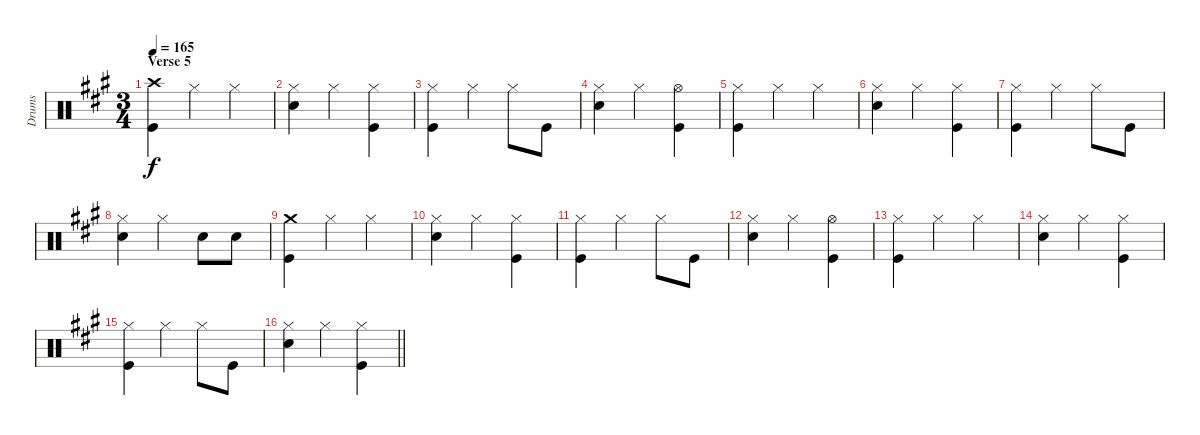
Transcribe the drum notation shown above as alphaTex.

\track ("Drums" "Drums") {instrument percussion}
\staff {score}
\articulation defaults
\ts (3 4)
\section ("" "Verse 5")
\tempo 165
\clef neutral
\ks a
("Crash high (hit)" "Kick (hit)").4{dy f} "Hi-Hat (closed)".4 "Hi-Hat (closed)".4 |
("Hi-Hat (closed)" "Snare (hit) 2").4 "Hi-Hat (closed)".4 ("Hi-Hat (closed)" "Kick (hit)").4 |
("Hi-Hat (closed)" "Kick (hit)").4 "Hi-Hat (closed)".4 "Hi-Hat (closed)".8 "Kick (hit)".8 |
("Hi-Hat (closed)" "Snare (hit) 2").4 "Hi-Hat (closed)".4 ("Hi-Hat (open)" "Kick (hit)").4 |
("Hi-Hat (closed)" "Kick (hit)").4 "Hi-Hat (closed)".4 "Hi-Hat (closed)".4 |
("Hi-Hat (closed)" "Snare (hit) 2").4 "Hi-Hat (closed)".4 ("Hi-Hat (closed)" "Kick (hit)").4 |
("Hi-Hat (closed)" "Kick (hit)").4 "Hi-Hat (closed)".4 "Hi-Hat (closed)".8 "Kick (hit)".8 |
("Hi-Hat (closed)" "Snare (hit) 2").4 "Hi-Hat (closed)".4 "Snare (hit) 2".8 "Snare (hit) 2".8 |
("Crash medium (hit)" "Kick (hit)").4 "Hi-Hat (closed)".4 "Hi-Hat (closed)".4 |
("Hi-Hat (closed)" "Snare (hit) 2").4 "Hi-Hat (closed)".4 ("Hi-Hat (closed)" "Kick (hit)").4 |
("Hi-Hat (closed)" "Kick (hit)").4 "Hi-Hat (closed)".4 "Hi-Hat (closed)".8 "Kick (hit)".8 |
("Hi-Hat (closed)" "Snare (hit) 2").4 "Hi-Hat (closed)".4 ("Hi-Hat (open)" "Kick (hit)").4 |
("Hi-Hat (closed)" "Kick (hit)").4 "Hi-Hat (closed)".4 "Hi-Hat (closed)".4 |
("Hi-Hat (closed)" "Snare (hit) 2").4 "Hi-Hat (closed)".4 ("Hi-Hat (closed)" "Kick (hit)").4 |
("Hi-Hat (closed)" "Kick (hit)").4 "Hi-Hat (closed)".4 "Hi-Hat (closed)".8 "Kick (hit)".8 |
\barLineRight lightlight
("Hi-Hat (closed)" "Snare (hit) 2").4 "Hi-Hat (closed)".4 ("Hi-Hat (closed)" "Kick (hit)").4
